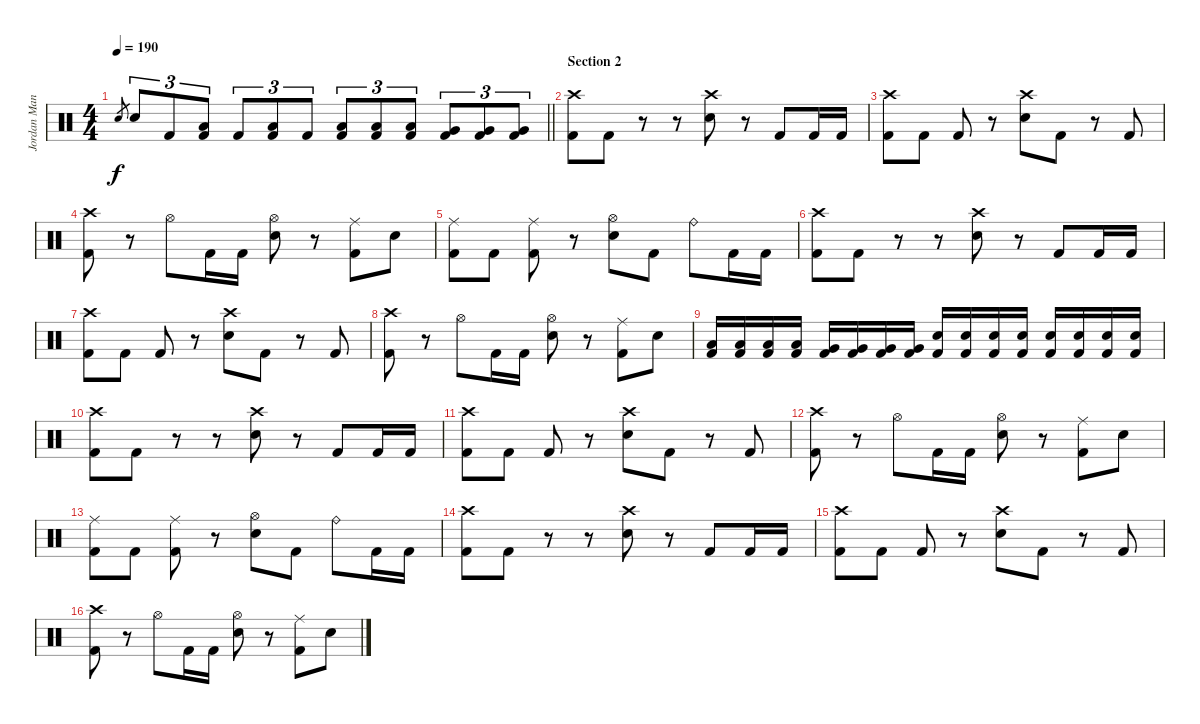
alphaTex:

\track ("Jordan Mancino" "Jordan Man") {instrument percussion}
\staff {score}
\articulation defaults
\ts (4 4)
\tempo 190
\clef neutral
\barLineRight lightlight
\ks c "Electric Snare (hit)".8{gr dy f} "Electric Snare (hit)".8{tu (3 2)} "Kick (hit) 2".8{tu (3 2)}
("Low Tom (hit)" "Kick (hit) 2").8{tu (3 2)} "Kick (hit) 2".8{tu (3 2)} ("Low Tom (hit)" "Kick (hit) 2").8{tu (3 2)} "Kick (hit) 2".8{tu (3 2)} ("Low Tom (hit)" "Kick (hit) 2").8{tu (3 2)} ("Low Tom (hit)" "Kick (hit) 2").8{tu (3 2)} ("Low Tom (hit)" "Kick (hit) 2").8{tu (3 2)} ("Very Low Tom (hit)" "Kick (hit) 2").8{tu (3 2)} ("Very Low Tom (hit)" "Kick (hit) 2").8{tu (3 2)} ("Very Low Tom (hit)" "Kick (hit) 2").8{tu (3 2)} |
\section ("" "Section 2")
("Crash high (hit)" "Kick (hit) 2").8 "Kick (hit) 2".8 r.8 r.8 ("Crash high (hit)" "Electric Snare (hit)").8 r.8 "Kick (hit) 2".8 "Kick (hit) 2".16 "Kick (hit) 2".16 |
("Crash high (hit)" "Kick (hit) 2").8 "Kick (hit) 2".8 "Kick (hit) 2".8 r.8 ("Crash high (hit)" "Electric Snare (hit)").8 "Kick (hit) 2".8 r.8 "Kick (hit) 2".8 |
("Crash high (hit)" "Kick (hit) 2").8 r.8 "Hi-Hat (open)".8 "Kick (hit) 2".16 "Kick (hit) 2".16 ("Hi-Hat (open)" "Electric Snare (hit)").8 r.8 ("Ride (middle)" "Kick (hit) 2").8 "Electric Snare (hit)".8 |
("Ride (middle)" "Kick (hit) 2").8 "Kick (hit) 2".8 ("Ride (middle)" "Kick (hit) 2").8 r.8 ("Hi-Hat (open)" "Electric Snare (hit)").8 "Kick (hit) 2".8 "Ride (bell)".8 "Kick (hit) 2".16 "Kick (hit) 2".16 |
("Crash high (hit)" "Kick (hit) 2").8 "Kick (hit) 2".8 r.8 r.8 ("Crash high (hit)" "Electric Snare (hit)").8 r.8 "Kick (hit) 2".8 "Kick (hit) 2".16 "Kick (hit) 2".16 |
("Crash high (hit)" "Kick (hit) 2").8 "Kick (hit) 2".8 "Kick (hit) 2".8 r.8 ("Crash high (hit)" "Electric Snare (hit)").8 "Kick (hit) 2".8 r.8 "Kick (hit) 2".8 |
("Crash high (hit)" "Kick (hit) 2").8 r.8 "Hi-Hat (open)".8 "Kick (hit) 2".16 "Kick (hit) 2".16 ("Hi-Hat (open)" "Electric Snare (hit)").8 r.8 ("Ride (middle)" "Kick (hit) 2").8 "Electric Snare (hit)".8 |
("Low Tom (hit)" "Kick (hit) 2").16 ("Low Tom (hit)" "Kick (hit) 2").16 ("Low Tom (hit)" "Kick (hit) 2").16 ("Low Tom (hit)" "Kick (hit) 2").16 ("Very Low Tom (hit)" "Kick (hit) 2").16 ("Very Low Tom (hit)" "Kick (hit) 2").16 ("Very Low Tom (hit)" "Kick (hit) 2").16 ("Very Low Tom (hit)" "Kick (hit) 2").16 ("Electric Snare (hit)" "Kick (hit) 2").16 ("Electric Snare (hit)" "Kick (hit) 2").16 ("Electric Snare (hit)" "Kick (hit) 2").16 ("Electric Snare (hit)" "Kick (hit) 2").16 ("Electric Snare (hit)" "Kick (hit) 2").16 ("Electric Snare (hit)" "Kick (hit) 2").16 ("Electric Snare (hit)" "Kick (hit) 2").16 ("Electric Snare (hit)" "Kick (hit) 2").16 |
("Crash high (hit)" "Kick (hit) 2").8 "Kick (hit) 2".8 r.8 r.8 ("Crash high (hit)" "Electric Snare (hit)").8 r.8 "Kick (hit) 2".8 "Kick (hit) 2".16 "Kick (hit) 2".16 |
("Crash high (hit)" "Kick (hit) 2").8 "Kick (hit) 2".8 "Kick (hit) 2".8 r.8 ("Crash high (hit)" "Electric Snare (hit)").8 "Kick (hit) 2".8 r.8 "Kick (hit) 2".8 |
("Crash high (hit)" "Kick (hit) 2").8 r.8 "Hi-Hat (open)".8 "Kick (hit) 2".16 "Kick (hit) 2".16 ("Hi-Hat (open)" "Electric Snare (hit)").8 r.8 ("Ride (middle)" "Kick (hit) 2").8 "Electric Snare (hit)".8 |
("Ride (middle)" "Kick (hit) 2").8 "Kick (hit) 2".8 ("Ride (middle)" "Kick (hit) 2").8 r.8 ("Hi-Hat (open)" "Electric Snare (hit)").8 "Kick (hit) 2".8 "Ride (bell)".8 "Kick (hit) 2".16 "Kick (hit) 2".16 |
("Crash high (hit)" "Kick (hit) 2").8 "Kick (hit) 2".8 r.8 r.8 ("Crash high (hit)" "Electric Snare (hit)").8 r.8 "Kick (hit) 2".8 "Kick (hit) 2".16 "Kick (hit) 2".16 |
("Crash high (hit)" "Kick (hit) 2").8 "Kick (hit) 2".8 "Kick (hit) 2".8 r.8 ("Crash high (hit)" "Electric Snare (hit)").8 "Kick (hit) 2".8 r.8 "Kick (hit) 2".8 |
("Crash high (hit)" "Kick (hit) 2").8 r.8 "Hi-Hat (open)".8 "Kick (hit) 2".16 "Kick (hit) 2".16 ("Hi-Hat (open)" "Electric Snare (hit)").8 r.8 ("Ride (middle)" "Kick (hit) 2").8 "Electric Snare (hit)".8
